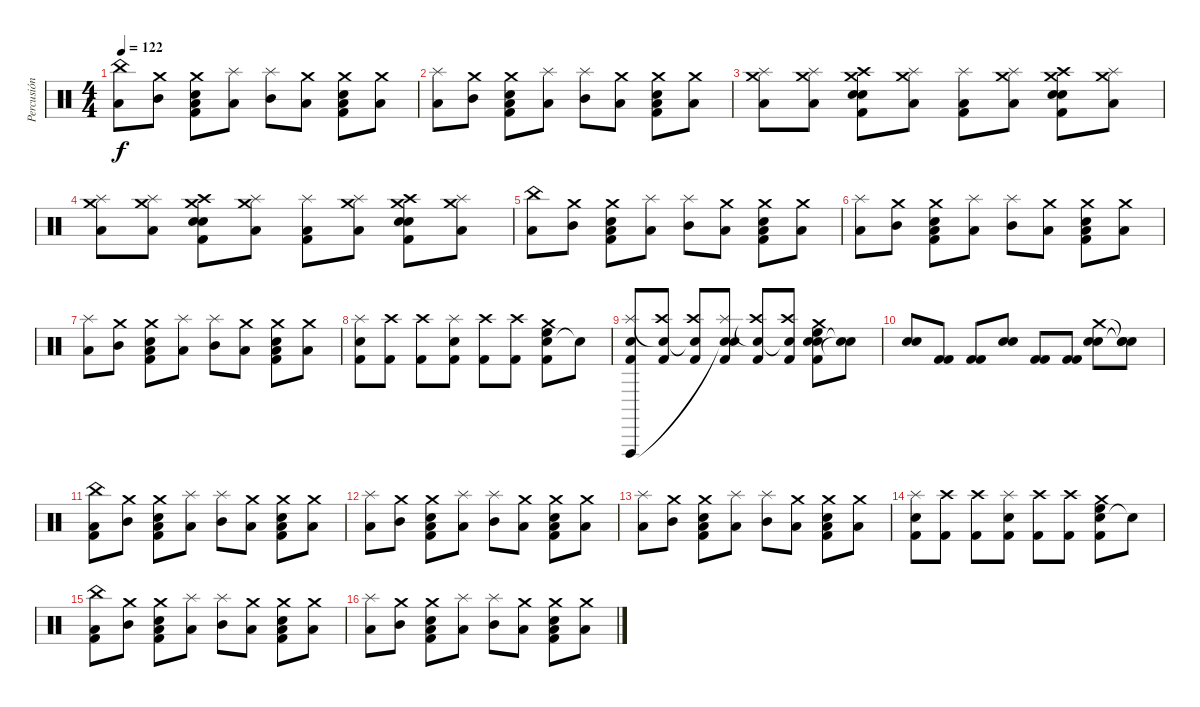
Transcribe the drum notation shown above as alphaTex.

\track ("Percusión" "Percusión") {instrument percussion}
\staff {score}
\articulation defaults
\ts (4 4)
\tempo 122
\clef neutral
\ks c
("China (hit)" "Low Floor Tom (hit)").8{dy f} ("Crash medium (hit)" "Mid Tom (hit)").8 ("Crash medium (hit)" "Low Floor Tom (hit)" "Electric Snare (hit)" "Kick (hit) 2").8 ("Splash (hit)" "Low Floor Tom (hit)").8 ("Splash (hit)" "Mid Tom (hit)").8 ("Crash medium (hit)" "Low Floor Tom (hit)").8 ("Crash medium (hit)" "Low Floor Tom (hit)" "Electric Snare (hit)" "Kick (hit) 2").8 ("Crash medium (hit)" "Low Floor Tom (hit)").8 |
("Splash (hit)" "Low Floor Tom (hit)").8 ("Crash medium (hit)" "Mid Tom (hit)").8 ("Crash medium (hit)" "Low Floor Tom (hit)" "Electric Snare (hit)" "Kick (hit) 2").8 ("Splash (hit)" "Low Floor Tom (hit)").8 ("Splash (hit)" "Mid Tom (hit)").8 ("Crash medium (hit)" "Low Floor Tom (hit)").8 ("Crash medium (hit)" "Low Floor Tom (hit)" "Electric Snare (hit)" "Kick (hit) 2").8 ("Crash medium (hit)" "Low Floor Tom (hit)").8 |
("Splash (hit)" "Crash medium (hit)" "Low Floor Tom (hit)").8 ("Splash (hit)" "Crash medium (hit)" "Low Floor Tom (hit)").8 ("Crash high (hit)" "Crash medium (hit)" "Kick (hit) 2" "Electric Snare (hit)" "Snare (hit) 2").8 ("Splash (hit)" "Crash medium (hit)" "Low Floor Tom (hit)").8 ("Splash (hit)" "Kick (hit) 2" "Low Floor Tom (hit)").8 ("Splash (hit)" "Crash medium (hit)" "Low Floor Tom (hit)").8 ("Crash high (hit)" "Crash medium (hit)" "Kick (hit) 2" "Electric Snare (hit)" "Snare (hit) 2").8 ("Splash (hit)" "Crash medium (hit)" "Low Floor Tom (hit)").8 |
("Splash (hit)" "Crash medium (hit)" "Low Floor Tom (hit)").8 ("Splash (hit)" "Crash medium (hit)" "Low Floor Tom (hit)").8 ("Crash high (hit)" "Crash medium (hit)" "Kick (hit) 2" "Electric Snare (hit)" "Snare (hit) 2").8 ("Splash (hit)" "Crash medium (hit)" "Low Floor Tom (hit)").8 ("Splash (hit)" "Kick (hit) 2" "Low Floor Tom (hit)").8 ("Splash (hit)" "Crash medium (hit)" "Low Floor Tom (hit)").8 ("Crash high (hit)" "Crash medium (hit)" "Kick (hit) 2" "Electric Snare (hit)" "Snare (hit) 2").8 ("Splash (hit)" "Crash medium (hit)" "Low Floor Tom (hit)").8 |
("China (hit)" "Low Floor Tom (hit)").8 ("Crash medium (hit)" "Mid Tom (hit)").8 ("Crash medium (hit)" "Low Floor Tom (hit)" "Electric Snare (hit)" "Kick (hit) 2").8 ("Splash (hit)" "Low Floor Tom (hit)").8 ("Splash (hit)" "Mid Tom (hit)").8 ("Crash medium (hit)" "Low Floor Tom (hit)").8 ("Crash medium (hit)" "Low Floor Tom (hit)" "Electric Snare (hit)" "Kick (hit) 2").8 ("Crash medium (hit)" "Low Floor Tom (hit)").8 |
("Splash (hit)" "Low Floor Tom (hit)").8 ("Crash medium (hit)" "Mid Tom (hit)").8 ("Crash medium (hit)" "Low Floor Tom (hit)" "Electric Snare (hit)" "Kick (hit) 2").8 ("Splash (hit)" "Low Floor Tom (hit)").8 ("Splash (hit)" "Mid Tom (hit)").8 ("Crash medium (hit)" "Low Floor Tom (hit)").8 ("Crash medium (hit)" "Low Floor Tom (hit)" "Electric Snare (hit)" "Kick (hit) 2").8 ("Crash medium (hit)" "Low Floor Tom (hit)").8 |
("Splash (hit)" "Low Floor Tom (hit)").8 ("Crash medium (hit)" "Mid Tom (hit)").8 ("Crash medium (hit)" "Low Floor Tom (hit)" "Electric Snare (hit)" "Kick (hit) 2").8 ("Splash (hit)" "Low Floor Tom (hit)").8 ("Splash (hit)" "Mid Tom (hit)").8 ("Crash medium (hit)" "Low Floor Tom (hit)").8 ("Crash medium (hit)" "Low Floor Tom (hit)" "Electric Snare (hit)" "Kick (hit) 2").8 ("Crash medium (hit)" "Low Floor Tom (hit)").8 |
("Electric Snare (hit)" "Kick (hit) 2" "Splash (hit)").8 ("Kick (hit) 2" "Crash high (hit)").8 ("Kick (hit) 2" "Crash high (hit)").8 ("Electric Snare (hit)" "Kick (hit) 2" "Splash (hit)").8 ("Kick (hit) 2" "Crash high (hit)").8 ("Kick (hit) 2" "Crash high (hit)").8 ("Electric Snare (hit)" "Kick (hit) 2" "Crash medium (hit)" "High Floor Tom (hit)").8 "Electric Snare (hit)"{t}.8 |
("Electric Snare (hit)" "Kick (hit) 2" "Splash (hit)" "Vibraslap (hit)").8 ("Kick (hit) 2" "Crash high (hit)" "Snare (hit)"{t}).8 ("Kick (hit) 2" "Crash high (hit)" "Snare (hit)"{t}).8 ("Electric Snare (hit)" "Kick (hit) 2" "Splash (hit)" "Snare (hit)"{t}).8 ("Kick (hit) 2" "Crash high (hit)" "Snare (hit)"{t}).8 ("Kick (hit) 2" "Crash high (hit)" "Snare (hit)"{t}).8 ("Electric Snare (hit)" "Kick (hit) 2" "Crash medium (hit)" "High Floor Tom (hit)" "Snare (hit)").8 ("Electric Snare (hit)"{t} "Snare (hit)"{t}).8 |
("Electric Snare (hit)" "Electric Snare (hit)").8 ("Kick (hit) 2" "Kick (hit) 2").8 ("Kick (hit) 2" "Kick (hit) 2").8 ("Electric Snare (hit)" "Electric Snare (hit)").8 ("Kick (hit) 2" "Kick (hit) 2").8 ("Kick (hit) 2" "Kick (hit) 2").8 ("Electric Snare (hit)" "Electric Snare (hit)" "Crash medium (hit)").8 ("Snare (hit)"{t} "Snare (hit)"{t} "Snare (hit)"{t}).8 |
("China (hit)" "Low Floor Tom (hit)" "Kick (hit) 2").8 ("Crash medium (hit)" "Mid Tom (hit)").8 ("Crash medium (hit)" "Low Floor Tom (hit)" "Electric Snare (hit)" "Kick (hit) 2").8 ("Splash (hit)" "Low Floor Tom (hit)").8 ("Splash (hit)" "Mid Tom (hit)").8 ("Crash medium (hit)" "Low Floor Tom (hit)").8 ("Crash medium (hit)" "Low Floor Tom (hit)" "Electric Snare (hit)" "Kick (hit) 2").8 ("Crash medium (hit)" "Low Floor Tom (hit)").8 |
("Splash (hit)" "Low Floor Tom (hit)").8 ("Crash medium (hit)" "Mid Tom (hit)").8 ("Crash medium (hit)" "Low Floor Tom (hit)" "Electric Snare (hit)" "Kick (hit) 2").8 ("Splash (hit)" "Low Floor Tom (hit)").8 ("Splash (hit)" "Mid Tom (hit)").8 ("Crash medium (hit)" "Low Floor Tom (hit)").8 ("Crash medium (hit)" "Low Floor Tom (hit)" "Electric Snare (hit)" "Kick (hit) 2").8 ("Crash medium (hit)" "Low Floor Tom (hit)").8 |
("Splash (hit)" "Low Floor Tom (hit)").8 ("Crash medium (hit)" "Mid Tom (hit)").8 ("Crash medium (hit)" "Low Floor Tom (hit)" "Electric Snare (hit)" "Kick (hit) 2").8 ("Splash (hit)" "Low Floor Tom (hit)").8 ("Splash (hit)" "Mid Tom (hit)").8 ("Crash medium (hit)" "Low Floor Tom (hit)").8 ("Crash medium (hit)" "Low Floor Tom (hit)" "Electric Snare (hit)" "Kick (hit) 2").8 ("Crash medium (hit)" "Low Floor Tom (hit)").8 |
("Electric Snare (hit)" "Kick (hit) 2" "Splash (hit)").8 ("Kick (hit) 2" "Crash high (hit)").8 ("Kick (hit) 2" "Crash high (hit)").8 ("Electric Snare (hit)" "Kick (hit) 2" "Splash (hit)").8 ("Kick (hit) 2" "Crash high (hit)").8 ("Kick (hit) 2" "Crash high (hit)").8 ("Electric Snare (hit)" "Kick (hit) 2" "Crash medium (hit)" "High Floor Tom (hit)").8 "Electric Snare (hit)"{t}.8 |
("China (hit)" "Low Floor Tom (hit)" "Kick (hit) 2").8 ("Crash medium (hit)" "Mid Tom (hit)").8 ("Crash medium (hit)" "Low Floor Tom (hit)" "Electric Snare (hit)" "Kick (hit) 2").8 ("Splash (hit)" "Low Floor Tom (hit)").8 ("Splash (hit)" "Mid Tom (hit)").8 ("Crash medium (hit)" "Low Floor Tom (hit)").8 ("Crash medium (hit)" "Low Floor Tom (hit)" "Electric Snare (hit)" "Kick (hit) 2").8 ("Crash medium (hit)" "Low Floor Tom (hit)").8 |
("Splash (hit)" "Low Floor Tom (hit)").8 ("Crash medium (hit)" "Mid Tom (hit)").8 ("Crash medium (hit)" "Low Floor Tom (hit)" "Electric Snare (hit)" "Kick (hit) 2").8 ("Splash (hit)" "Low Floor Tom (hit)").8 ("Splash (hit)" "Mid Tom (hit)").8 ("Crash medium (hit)" "Low Floor Tom (hit)").8 ("Crash medium (hit)" "Low Floor Tom (hit)" "Electric Snare (hit)" "Kick (hit) 2").8 ("Crash medium (hit)" "Low Floor Tom (hit)").8
